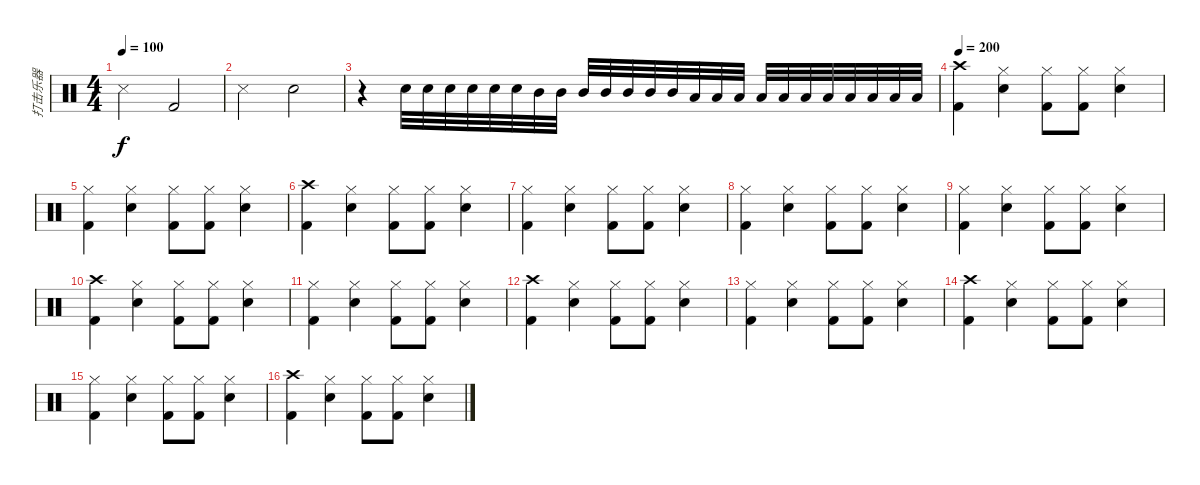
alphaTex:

\track ("打击乐器" "打击乐器") {instrument percussion}
\staff {score}
\articulation defaults
\ts (4 4)
\tempo 100
\clef neutral
\ks c "Snare (side stick) 3".2{dy f} "Kick (hit) 2".2
|
"Snare (side stick) 3".2 "Snare (hit) 2".2 |
r.4 "Snare (hit) 2".32 "Snare (hit) 2".32 "Snare (hit) 2".32 "Snare (hit) 2".32 "Snare (hit) 2".32 "Snare (hit) 2".32 "Mid Tom (hit)".32 "Mid Tom (hit)".32 "Mid Tom (hit)".32 "Mid Tom (hit)".32 "Mid Tom (hit)".32 "Mid Tom (hit)".32 "Mid Tom (hit)".32 "Low Tom (hit)".32 "Low Tom (hit)".32 "Low Tom (hit)".32 "Low Tom (hit)".32 "Low Tom (hit)".32 "Low Tom (hit)".32 "Low Tom (hit)".32 "Low Floor Tom (hit)".32 "Low Floor Tom (hit)".32 "Low Floor Tom (hit)".32 "Low Floor Tom (hit)".32 |
\tempo 200
("Crash high (hit)" "Kick (hit) 2").4 ("Hi-Hat (closed)" "Snare (hit) 2").4 ("Hi-Hat (closed)" "Kick (hit) 2").8 ("Hi-Hat (closed)" "Kick (hit) 2").8 ("Hi-Hat (closed)" "Snare (hit) 2").4 |
("Hi-Hat (closed)" "Kick (hit) 2").4 ("Hi-Hat (closed)" "Snare (hit) 2").4 ("Hi-Hat (closed)" "Kick (hit) 2").8 ("Hi-Hat (closed)" "Kick (hit) 2").8 ("Hi-Hat (closed)" "Snare (hit) 2").4 |
("Crash high (hit)" "Kick (hit) 2").4 ("Hi-Hat (closed)" "Snare (hit) 2").4 ("Hi-Hat (closed)" "Kick (hit) 2").8 ("Hi-Hat (closed)" "Kick (hit) 2").8 ("Hi-Hat (closed)" "Snare (hit) 2").4 |
("Hi-Hat (closed)" "Kick (hit) 2").4 ("Hi-Hat (closed)" "Snare (hit) 2").4 ("Hi-Hat (closed)" "Kick (hit) 2").8 ("Hi-Hat (closed)" "Kick (hit) 2").8 ("Hi-Hat (closed)" "Snare (hit) 2").4 |
("Hi-Hat (closed)" "Kick (hit) 2").4 ("Hi-Hat (closed)" "Snare (hit) 2").4 ("Hi-Hat (closed)" "Kick (hit) 2").8 ("Hi-Hat (closed)" "Kick (hit) 2").8 ("Hi-Hat (closed)" "Snare (hit) 2").4 |
("Hi-Hat (closed)" "Kick (hit) 2").4 ("Hi-Hat (closed)" "Snare (hit) 2").4 ("Hi-Hat (closed)" "Kick (hit) 2").8 ("Hi-Hat (closed)" "Kick (hit) 2").8 ("Hi-Hat (closed)" "Snare (hit) 2").4 |
("Crash high (hit)" "Kick (hit) 2").4 ("Hi-Hat (closed)" "Snare (hit) 2").4 ("Hi-Hat (closed)" "Kick (hit) 2").8 ("Hi-Hat (closed)" "Kick (hit) 2").8 ("Hi-Hat (closed)" "Snare (hit) 2").4 |
("Hi-Hat (closed)" "Kick (hit) 2").4 ("Hi-Hat (closed)" "Snare (hit) 2").4 ("Hi-Hat (closed)" "Kick (hit) 2").8 ("Hi-Hat (closed)" "Kick (hit) 2").8 ("Hi-Hat (closed)" "Snare (hit) 2").4 |
("Crash high (hit)" "Kick (hit) 2").4 ("Hi-Hat (closed)" "Snare (hit) 2").4 ("Hi-Hat (closed)" "Kick (hit) 2").8 ("Hi-Hat (closed)" "Kick (hit) 2").8 ("Hi-Hat (closed)" "Snare (hit) 2").4 |
("Hi-Hat (closed)" "Kick (hit) 2").4 ("Hi-Hat (closed)" "Snare (hit) 2").4 ("Hi-Hat (closed)" "Kick (hit) 2").8 ("Hi-Hat (closed)" "Kick (hit) 2").8 ("Hi-Hat (closed)" "Snare (hit) 2").4 |
("Crash high (hit)" "Kick (hit) 2").4 ("Hi-Hat (closed)" "Snare (hit) 2").4 ("Hi-Hat (closed)" "Kick (hit) 2").8 ("Hi-Hat (closed)" "Kick (hit) 2").8 ("Hi-Hat (closed)" "Snare (hit) 2").4 |
("Hi-Hat (closed)" "Kick (hit) 2").4 ("Hi-Hat (closed)" "Snare (hit) 2").4 ("Hi-Hat (closed)" "Kick (hit) 2").8 ("Hi-Hat (closed)" "Kick (hit) 2").8 ("Hi-Hat (closed)" "Snare (hit) 2").4 |
("Crash high (hit)" "Kick (hit) 2").4 ("Hi-Hat (closed)" "Snare (hit) 2").4 ("Hi-Hat (closed)" "Kick (hit) 2").8 ("Hi-Hat (closed)" "Kick (hit) 2").8 ("Hi-Hat (closed)" "Snare (hit) 2").4
